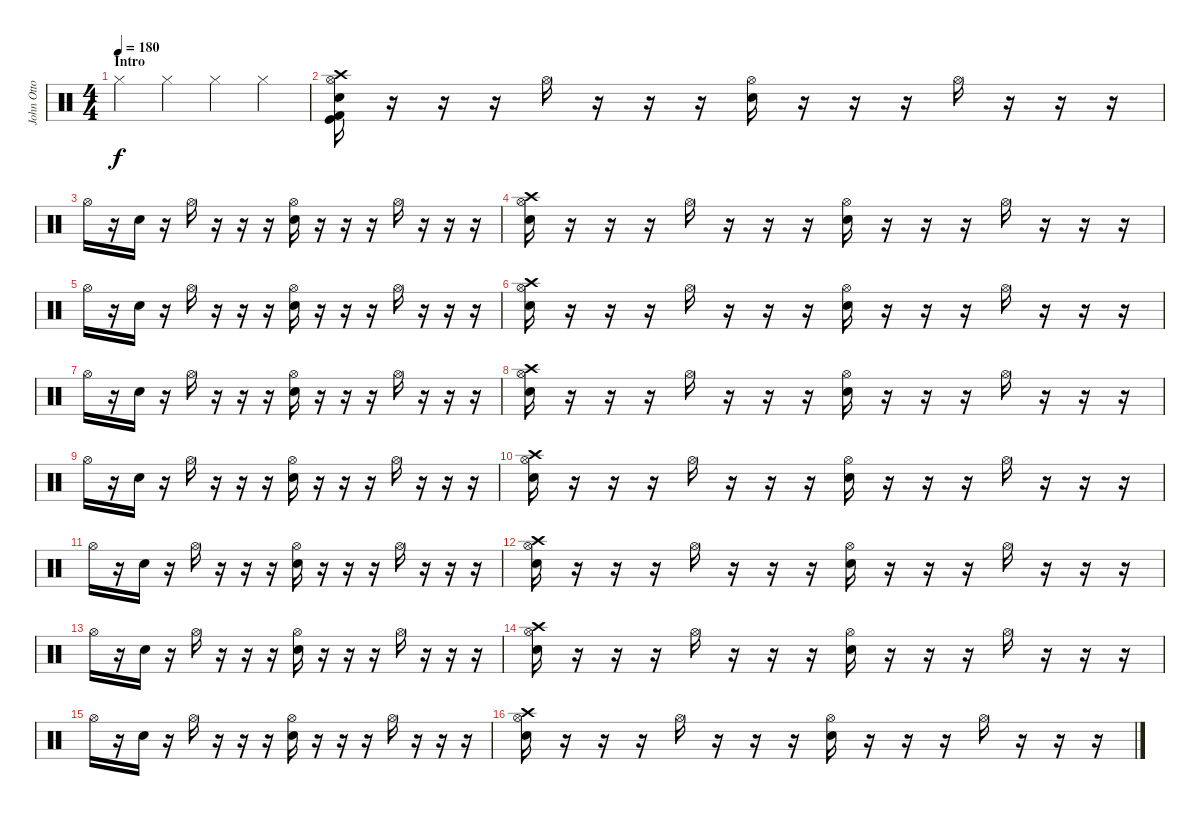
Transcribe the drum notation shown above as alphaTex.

\track ("John Otto" "John Otto") {instrument percussion}
\staff {score}
\articulation defaults
\ts (4 4)
\section ("" "Intro")
\tempo 180
\clef neutral
\ks c "Hi-Hat (closed)".4{dy f} "Hi-Hat (closed)".4 "Hi-Hat (closed)".4 "Hi-Hat (closed)".4
|
("Hi-Hat (open)" "Crash high (hit)" "Snare (hit) 2" "Kick (hit) 2" "Kick (hit)").16 r.16 r.16 r.16 "Hi-Hat (open)".16 r.16 r.16 r.16 ("Hi-Hat (open)" "Snare (hit) 2").16 r.16 r.16 r.16 "Hi-Hat (open)".16 r.16 r.16 r.16 |
"Hi-Hat (open)".16 r.16 "Snare (hit) 2".16 r.16 "Hi-Hat (open)".16 r.16 r.16 r.16 ("Hi-Hat (open)" "Snare (hit) 2").16 r.16 r.16 r.16 "Hi-Hat (open)".16 r.16 r.16 r.16 |
("Hi-Hat (open)" "Crash high (hit)" "Snare (hit) 2").16 r.16 r.16 r.16 "Hi-Hat (open)".16 r.16 r.16 r.16 ("Hi-Hat (open)" "Snare (hit) 2").16 r.16 r.16 r.16 "Hi-Hat (open)".16 r.16 r.16 r.16 |
"Hi-Hat (open)".16 r.16 "Snare (hit) 2".16 r.16 "Hi-Hat (open)".16 r.16 r.16 r.16 ("Hi-Hat (open)" "Snare (hit) 2").16 r.16 r.16 r.16 "Hi-Hat (open)".16 r.16 r.16 r.16 |
("Hi-Hat (open)" "Crash high (hit)" "Snare (hit) 2").16 r.16 r.16 r.16 "Hi-Hat (open)".16 r.16 r.16 r.16 ("Hi-Hat (open)" "Snare (hit) 2").16 r.16 r.16 r.16 "Hi-Hat (open)".16 r.16 r.16 r.16 |
"Hi-Hat (open)".16 r.16 "Snare (hit) 2".16 r.16 "Hi-Hat (open)".16 r.16 r.16 r.16 ("Hi-Hat (open)" "Snare (hit) 2").16 r.16 r.16 r.16 "Hi-Hat (open)".16 r.16 r.16 r.16 |
("Hi-Hat (open)" "Crash high (hit)" "Snare (hit) 2").16 r.16 r.16 r.16 "Hi-Hat (open)".16 r.16 r.16 r.16 ("Hi-Hat (open)" "Snare (hit) 2").16 r.16 r.16 r.16 "Hi-Hat (open)".16 r.16 r.16 r.16 |
"Hi-Hat (open)".16 r.16 "Snare (hit) 2".16 r.16 "Hi-Hat (open)".16 r.16 r.16 r.16 ("Hi-Hat (open)" "Snare (hit) 2").16 r.16 r.16 r.16 "Hi-Hat (open)".16 r.16 r.16 r.16 |
("Hi-Hat (open)" "Crash high (hit)" "Snare (hit) 2").16 r.16 r.16 r.16 "Hi-Hat (open)".16 r.16 r.16 r.16 ("Hi-Hat (open)" "Snare (hit) 2").16 r.16 r.16 r.16 "Hi-Hat (open)".16 r.16 r.16 r.16 |
"Hi-Hat (open)".16 r.16 "Snare (hit) 2".16 r.16 "Hi-Hat (open)".16 r.16 r.16 r.16 ("Hi-Hat (open)" "Snare (hit) 2").16 r.16 r.16 r.16 "Hi-Hat (open)".16 r.16 r.16 r.16 |
("Hi-Hat (open)" "Crash high (hit)" "Snare (hit) 2").16 r.16 r.16 r.16 "Hi-Hat (open)".16 r.16 r.16 r.16 ("Hi-Hat (open)" "Snare (hit) 2").16 r.16 r.16 r.16 "Hi-Hat (open)".16 r.16 r.16 r.16 |
"Hi-Hat (open)".16 r.16 "Snare (hit) 2".16 r.16 "Hi-Hat (open)".16 r.16 r.16 r.16 ("Hi-Hat (open)" "Snare (hit) 2").16 r.16 r.16 r.16 "Hi-Hat (open)".16 r.16 r.16 r.16 |
("Hi-Hat (open)" "Crash high (hit)" "Snare (hit) 2").16 r.16 r.16 r.16 "Hi-Hat (open)".16 r.16 r.16 r.16 ("Hi-Hat (open)" "Snare (hit) 2").16 r.16 r.16 r.16 "Hi-Hat (open)".16 r.16 r.16 r.16 |
"Hi-Hat (open)".16 r.16 "Snare (hit) 2".16 r.16 "Hi-Hat (open)".16 r.16 r.16 r.16 ("Hi-Hat (open)" "Snare (hit) 2").16 r.16 r.16 r.16 "Hi-Hat (open)".16 r.16 r.16 r.16 |
("Hi-Hat (open)" "Crash high (hit)" "Snare (hit) 2").16 r.16 r.16 r.16 "Hi-Hat (open)".16 r.16 r.16 r.16 ("Hi-Hat (open)" "Snare (hit) 2").16 r.16 r.16 r.16 "Hi-Hat (open)".16 r.16 r.16 r.16
